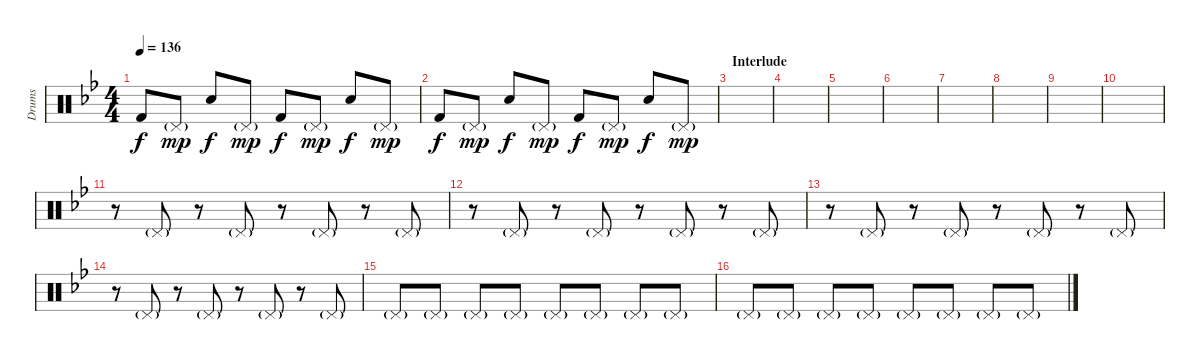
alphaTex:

\track ("Drums" "Drums") {instrument percussion}
\staff {score}
\articulation defaults
\ts (4 4)
\tempo 136
\clef neutral
\ks gminor "Kick (hit) 2".8{dy f} "Pedal Hi-Hat (hit)"{g}.8{dy mp} "Hand Clap (hit)".8{dy f} "Pedal Hi-Hat (hit)"{g}.8{dy mp} "Kick (hit) 2".8{dy f} "Pedal Hi-Hat (hit)"{g}.8{dy mp} "Hand Clap (hit)".8{dy f} "Pedal Hi-Hat (hit)"{g}.8{dy mp}
|
"Kick (hit) 2".8{dy f} "Pedal Hi-Hat (hit)"{g}.8{dy mp} "Hand Clap (hit)".8{dy f} "Pedal Hi-Hat (hit)"{g}.8{dy mp} "Kick (hit) 2".8{dy f} "Pedal Hi-Hat (hit)"{g}.8{dy mp} "Hand Clap (hit)".8{dy f} "Pedal Hi-Hat (hit)"{g}.8{dy mp} |
\section ("" "Interlude")
|
|
|
|
|
|
|
|
r.8 "Pedal Hi-Hat (hit)"{g}.8 r.8 "Pedal Hi-Hat (hit)"{g}.8 r.8 "Pedal Hi-Hat (hit)"{g}.8 r.8 "Pedal Hi-Hat (hit)"{g}.8 |
r.8 "Pedal Hi-Hat (hit)"{g}.8 r.8 "Pedal Hi-Hat (hit)"{g}.8 r.8 "Pedal Hi-Hat (hit)"{g}.8 r.8 "Pedal Hi-Hat (hit)"{g}.8 |
r.8 "Pedal Hi-Hat (hit)"{g}.8 r.8 "Pedal Hi-Hat (hit)"{g}.8 r.8 "Pedal Hi-Hat (hit)"{g}.8 r.8 "Pedal Hi-Hat (hit)"{g}.8 |
r.8 "Pedal Hi-Hat (hit)"{g}.8 r.8 "Pedal Hi-Hat (hit)"{g}.8 r.8 "Pedal Hi-Hat (hit)"{g}.8 r.8 "Pedal Hi-Hat (hit)"{g}.8 |
"Pedal Hi-Hat (hit)"{g}.8 "Pedal Hi-Hat (hit)"{g}.8 "Pedal Hi-Hat (hit)"{g}.8 "Pedal Hi-Hat (hit)"{g}.8 "Pedal Hi-Hat (hit)"{g}.8 "Pedal Hi-Hat (hit)"{g}.8 "Pedal Hi-Hat (hit)"{g}.8 "Pedal Hi-Hat (hit)"{g}.8 |
"Pedal Hi-Hat (hit)"{g}.8 "Pedal Hi-Hat (hit)"{g}.8 "Pedal Hi-Hat (hit)"{g}.8 "Pedal Hi-Hat (hit)"{g}.8 "Pedal Hi-Hat (hit)"{g}.8 "Pedal Hi-Hat (hit)"{g}.8 "Pedal Hi-Hat (hit)"{g}.8 "Pedal Hi-Hat (hit)"{g}.8
